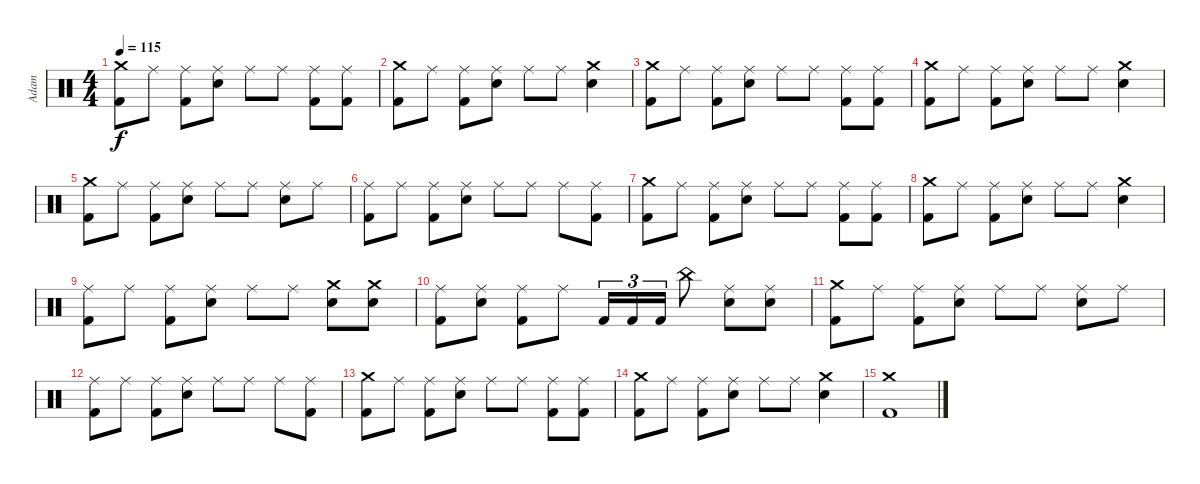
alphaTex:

\track ("Adam" "Adam") {instrument percussion}
\staff {score}
\articulation defaults
\ts (4 4)
\tempo 115
\clef neutral
\ks c
("Crash medium (hit)" "Kick (hit) 2").8{dy f} "Ride (middle)".8 ("Ride (middle)" "Kick (hit) 2").8 ("Ride (middle)" "Electric Snare (hit)").8 "Ride (middle)".8 "Ride (middle)".8 ("Ride (middle)" "Kick (hit) 2").8 ("Ride (middle)" "Kick (hit) 2").8 |
("Crash medium (hit)" "Kick (hit) 2").8 "Ride (middle)".8 ("Ride (middle)" "Kick (hit) 2").8 ("Ride (middle)" "Electric Snare (hit)").8 "Ride (middle)".8 "Ride (middle)".8 ("Crash medium (hit)" "Snare (hit) 2").4 |
("Crash medium (hit)" "Kick (hit) 2").8 "Ride (middle)".8 ("Ride (middle)" "Kick (hit) 2").8 ("Ride (middle)" "Electric Snare (hit)").8 "Ride (middle)".8 "Ride (middle)".8 ("Ride (middle)" "Kick (hit) 2").8 ("Ride (middle)" "Kick (hit) 2").8 |
("Crash medium (hit)" "Kick (hit) 2").8 "Ride (middle)".8 ("Ride (middle)" "Kick (hit) 2").8 ("Ride (middle)" "Electric Snare (hit)").8 "Ride (middle)".8 "Ride (middle)".8 ("Crash medium (hit)" "Snare (hit) 2").4 |
("Crash medium (hit)" "Kick (hit) 2").8 "Ride (middle)".8 ("Ride (middle)" "Kick (hit) 2").8 ("Ride (middle)" "Electric Snare (hit)").8 "Ride (middle)".8 "Ride (middle)".8 ("Ride (middle)" "Snare (hit) 2").8 "Ride (middle)".8 |
("Ride (middle)" "Kick (hit) 2").8 "Ride (middle)".8 ("Ride (middle)" "Kick (hit) 2").8 ("Ride (middle)" "Electric Snare (hit)").8 "Ride (middle)".8 "Ride (middle)".8 "Ride (middle)".8 ("Ride (middle)" "Kick (hit) 2").8 |
("Crash medium (hit)" "Kick (hit) 2").8 "Ride (middle)".8 ("Ride (middle)" "Kick (hit) 2").8 ("Ride (middle)" "Electric Snare (hit)").8 "Ride (middle)".8 "Ride (middle)".8 ("Ride (middle)" "Kick (hit) 2").8 ("Ride (middle)" "Kick (hit) 2").8 |
("Crash medium (hit)" "Kick (hit) 2").8 "Ride (middle)".8 ("Ride (middle)" "Kick (hit) 2").8 ("Ride (middle)" "Electric Snare (hit)").8 "Ride (middle)".8 "Ride (middle)".8 ("Crash medium (hit)" "Snare (hit) 2").4 |
("Ride (middle)" "Kick (hit) 2").8 "Ride (middle)".8 ("Ride (middle)" "Kick (hit) 2").8 ("Ride (middle)" "Electric Snare (hit)").8 "Ride (middle)".8 "Ride (middle)".8 ("Crash medium (hit)" "Electric Snare (hit)").8 ("Crash medium (hit)" "Electric Snare (hit)").8 |
("Ride (middle)" "Kick (hit) 2").8 ("Ride (middle)" "Electric Snare (hit)").8 ("Ride (middle)" "Kick (hit) 2").8 "Ride (middle)".8 "Kick (hit) 2".16{tu (3 2)} "Kick (hit) 2".16{tu (3 2)} "Kick (hit) 2".16{tu (3 2)} "China (hit)".8 ("Ride (middle)" "Snare (hit) 2").8 ("Ride (middle)" "Snare (hit) 2").8 |
("Crash medium (hit)" "Kick (hit) 2").8 "Ride (middle)".8 ("Ride (middle)" "Kick (hit) 2").8 ("Ride (middle)" "Electric Snare (hit)").8 "Ride (middle)".8 "Ride (middle)".8 ("Ride (middle)" "Snare (hit) 2").8 "Ride (middle)".8 |
("Ride (middle)" "Kick (hit) 2").8 "Ride (middle)".8 ("Ride (middle)" "Kick (hit) 2").8 ("Ride (middle)" "Electric Snare (hit)").8 "Ride (middle)".8 "Ride (middle)".8 "Ride (middle)".8 ("Ride (middle)" "Kick (hit) 2").8 |
("Crash medium (hit)" "Kick (hit) 2").8 "Ride (middle)".8 ("Ride (middle)" "Kick (hit) 2").8 ("Ride (middle)" "Electric Snare (hit)").8 "Ride (middle)".8 "Ride (middle)".8 ("Ride (middle)" "Kick (hit) 2").8 ("Ride (middle)" "Kick (hit) 2").8 |
("Crash medium (hit)" "Kick (hit) 2").8 "Ride (middle)".8 ("Ride (middle)" "Kick (hit) 2").8 ("Ride (middle)" "Electric Snare (hit)").8 "Ride (middle)".8 "Ride (middle)".8 ("Crash medium (hit)" "Snare (hit) 2").4 |
("Crash medium (hit)" "Kick (hit) 2").1
